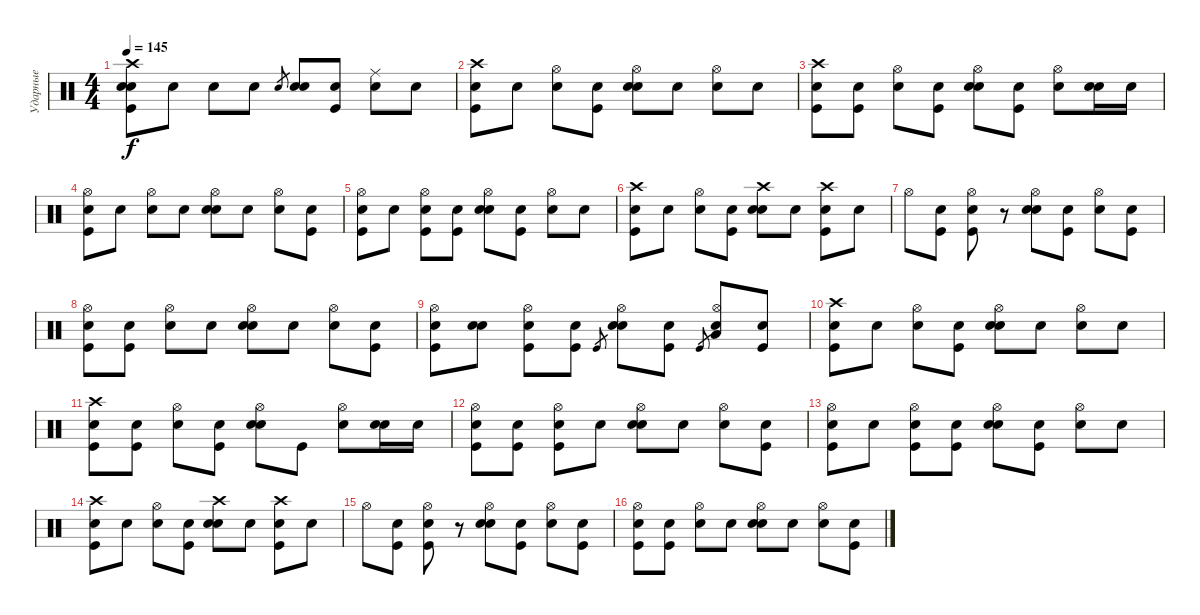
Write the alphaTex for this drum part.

\track ("Ударные" "Ударные") {instrument percussion}
\staff {score}
\articulation defaults
\ts (4 4)
\tempo 145
\clef neutral
\ks c
("Crash high (hit)" "Snare (hit) 2" "Kick (hit)" "Snare (hit)"{x}).8{dy f} "Snare (hit)"{x}.8 "Snare (hit)"{x}.8 "Snare (hit)"{x}.8 "Snare (hit) 2".8{gr} ("Snare (hit) 2" "Snare (hit)"{x}).8 ("Kick (hit)" "Snare (hit)"{x}).8 ("Ride (middle)" "Snare (hit)"{x}).8 "Snare (hit)"{x}.8 |
("Kick (hit)" "Crash high (hit)" "Snare (hit)"{x}).8 "Snare (hit)"{x}.8 ("Hi-Hat (open)" "Snare (hit)"{x}).8 ("Kick (hit)" "Snare (hit)"{x}).8 ("Snare (hit) 2" "Hi-Hat (open)" "Snare (hit)"{x}).8 "Snare (hit)"{x}.8 ("Hi-Hat (open)" "Snare (hit)"{x}).8 "Snare (hit)"{x}.8 |
("Kick (hit)" "Crash high (hit)" "Snare (hit)"{x}).8 ("Kick (hit)" "Snare (hit)"{x}).8 ("Hi-Hat (open)" "Snare (hit)"{x}).8 ("Kick (hit)" "Snare (hit)"{x}).8 ("Snare (hit) 2" "Hi-Hat (open)" "Snare (hit)"{x}).8 ("Kick (hit)" "Snare (hit)"{x}).8 ("Hi-Hat (open)" "Snare (hit)"{x}).8 ("Snare (hit) 2" "Snare (hit)"{x}).16 "Snare (hit) 2".16 |
("Kick (hit)" "Hi-Hat (open)" "Snare (hit)"{x}).8 "Snare (hit)"{x}.8 ("Hi-Hat (open)" "Snare (hit)"{x}).8 "Snare (hit)"{x}.8 ("Snare (hit) 2" "Hi-Hat (open)" "Snare (hit)"{x}).8 "Snare (hit)"{x}.8 ("Hi-Hat (open)" "Snare (hit)"{x}).8 ("Kick (hit)" "Snare (hit)"{x}).8 |
("Kick (hit)" "Hi-Hat (open)" "Snare (hit)"{x}).8 "Snare (hit)"{x}.8 ("Kick (hit)" "Hi-Hat (open)" "Snare (hit)"{x}).8 ("Kick (hit)" "Snare (hit)"{x}).8 ("Snare (hit) 2" "Hi-Hat (open)" "Snare (hit)"{x}).8 ("Kick (hit)" "Snare (hit)"{x}).8 ("Hi-Hat (open)" "Snare (hit)"{x}).8 "Snare (hit)"{x}.8 |
("Kick (hit)" "Crash high (hit)" "Snare (hit)"{x}).8 "Snare (hit)"{x}.8 ("Hi-Hat (open)" "Snare (hit)"{x}).8 ("Kick (hit)" "Snare (hit)"{x}).8 ("Crash high (hit)" "Snare (hit) 2" "Snare (hit)"{x}).8 "Snare (hit)"{x}.8 ("Crash high (hit)" "Kick (hit)" "Snare (hit)"{x}).8 "Snare (hit)"{x}.8 |
"Hi-Hat (open)".8 ("Kick (hit)" "Snare (hit)"{x}).8 ("Kick (hit)" "Hi-Hat (open)" "Snare (hit)"{x}).8 r.8 ("Snare (hit) 2" "Hi-Hat (open)" "Snare (hit)"{x}).8 ("Kick (hit)" "Snare (hit)"{x}).8 ("Hi-Hat (open)" "Snare (hit)"{x}).8 ("Kick (hit)" "Snare (hit)"{x}).8 |
("Kick (hit)" "Hi-Hat (open)" "Snare (hit)"{x}).8 ("Kick (hit)" "Snare (hit)"{x}).8 ("Hi-Hat (open)" "Snare (hit)"{x}).8 "Snare (hit)"{x}.8 ("Snare (hit) 2" "Hi-Hat (open)" "Snare (hit)"{x}).8 "Snare (hit)"{x}.8 ("Hi-Hat (open)" "Snare (hit)"{x}).8 ("Kick (hit)" "Snare (hit)"{x}).8 |
("Kick (hit)" "Hi-Hat (open)" "Snare (hit)"{x}).8 ("Snare (hit) 2" "Snare (hit)"{x}).8 ("Kick (hit)" "Hi-Hat (open)" "Snare (hit)"{x}).8 ("Kick (hit)" "Snare (hit)"{x}).8 "Kick (hit)".8{gr} ("Snare (hit) 2" "Hi-Hat (open)" "Snare (hit)"{x}).8 ("Kick (hit)" "Snare (hit)"{x}).8 "Kick (hit)".8{gr} ("Low Floor Tom (hit)" "Hi-Hat (open)" "Snare (hit)"{x}).8 ("Kick (hit)" "Snare (hit)"{x}).8 |
("Kick (hit)" "Crash high (hit)" "Snare (hit)"{x}).8 "Snare (hit)"{x}.8 ("Hi-Hat (open)" "Snare (hit)"{x}).8 ("Kick (hit)" "Snare (hit)"{x}).8 ("Snare (hit) 2" "Hi-Hat (open)" "Snare (hit)"{x}).8 "Snare (hit)"{x}.8 ("Hi-Hat (open)" "Snare (hit)"{x}).8 "Snare (hit)"{x}.8 |
("Kick (hit)" "Crash high (hit)" "Snare (hit)"{x}).8 ("Kick (hit)" "Snare (hit)"{x}).8 ("Hi-Hat (open)" "Snare (hit)"{x}).8 ("Kick (hit)" "Snare (hit)"{x}).8 ("Snare (hit) 2" "Hi-Hat (open)" "Snare (hit)"{x}).8 "Kick (hit)".8 ("Hi-Hat (open)" "Snare (hit)"{x}).8 ("Snare (hit) 2" "Snare (hit)"{x}).16 "Snare (hit) 2".16 |
("Kick (hit)" "Hi-Hat (open)" "Snare (hit)"{x}).8 ("Kick (hit)" "Snare (hit)"{x}).8 ("Kick (hit)" "Hi-Hat (open)" "Snare (hit)"{x}).8 "Snare (hit)"{x}.8 ("Snare (hit) 2" "Hi-Hat (open)" "Snare (hit)"{x}).8 "Snare (hit)"{x}.8 ("Hi-Hat (open)" "Snare (hit)"{x}).8 ("Kick (hit)" "Snare (hit)"{x}).8 |
("Kick (hit)" "Hi-Hat (open)" "Snare (hit)"{x}).8 "Snare (hit)"{x}.8 ("Kick (hit)" "Hi-Hat (open)" "Snare (hit)"{x}).8 ("Kick (hit)" "Snare (hit)"{x}).8 ("Snare (hit) 2" "Hi-Hat (open)" "Snare (hit)"{x}).8 ("Kick (hit)" "Snare (hit)"{x}).8 ("Hi-Hat (open)" "Snare (hit)"{x}).8 "Snare (hit)"{x}.8 |
("Kick (hit)" "Crash high (hit)" "Snare (hit)"{x}).8 "Snare (hit)"{x}.8 ("Hi-Hat (open)" "Snare (hit)"{x}).8 ("Kick (hit)" "Snare (hit)"{x}).8 ("Crash high (hit)" "Snare (hit) 2" "Snare (hit)"{x}).8 "Snare (hit)"{x}.8 ("Crash high (hit)" "Kick (hit)" "Snare (hit)"{x}).8 "Snare (hit)"{x}.8 |
"Hi-Hat (open)".8 ("Kick (hit)" "Snare (hit)"{x}).8 ("Kick (hit)" "Hi-Hat (open)" "Snare (hit)"{x}).8 r.8 ("Snare (hit) 2" "Hi-Hat (open)" "Snare (hit)"{x}).8 ("Kick (hit)" "Snare (hit)"{x}).8 ("Hi-Hat (open)" "Snare (hit)"{x}).8 ("Kick (hit)" "Snare (hit)"{x}).8 |
("Kick (hit)" "Hi-Hat (open)" "Snare (hit)"{x}).8 ("Kick (hit)" "Snare (hit)"{x}).8 ("Hi-Hat (open)" "Snare (hit)"{x}).8 "Snare (hit)"{x}.8 ("Snare (hit) 2" "Hi-Hat (open)" "Snare (hit)"{x}).8 "Snare (hit)"{x}.8 ("Hi-Hat (open)" "Snare (hit)"{x}).8 ("Kick (hit)" "Snare (hit)"{x}).8
